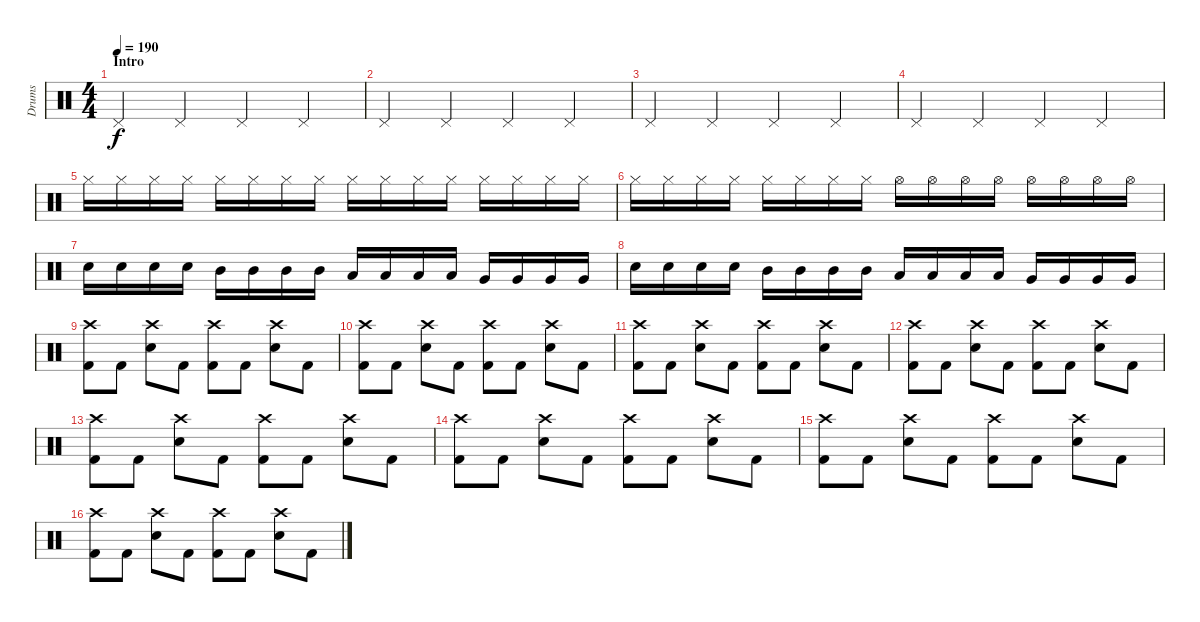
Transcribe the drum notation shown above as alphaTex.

\track ("Drums" "Drums") {instrument percussion}
\staff {score}
\articulation defaults
\ts (4 4)
\section ("" "Intro")
\tempo 190
\clef neutral
\ks c "Pedal Hi-Hat (hit)".4{dy f} "Pedal Hi-Hat (hit)".4 "Pedal Hi-Hat (hit)".4 "Pedal Hi-Hat (hit)".4
|
"Pedal Hi-Hat (hit)".4 "Pedal Hi-Hat (hit)".4 "Pedal Hi-Hat (hit)".4 "Pedal Hi-Hat (hit)".4 |
"Pedal Hi-Hat (hit)".4 "Pedal Hi-Hat (hit)".4 "Pedal Hi-Hat (hit)".4 "Pedal Hi-Hat (hit)".4 |
"Pedal Hi-Hat (hit)".4 "Pedal Hi-Hat (hit)".4 "Pedal Hi-Hat (hit)".4 "Pedal Hi-Hat (hit)".4 |
"Hi-Hat (closed)".16 "Hi-Hat (closed)".16 "Hi-Hat (closed)".16 "Hi-Hat (closed)".16 "Hi-Hat (closed)".16 "Hi-Hat (closed)".16 "Hi-Hat (closed)".16 "Hi-Hat (closed)".16 "Hi-Hat (closed)".16 "Hi-Hat (closed)".16 "Hi-Hat (closed)".16 "Hi-Hat (closed)".16 "Hi-Hat (closed)".16 "Hi-Hat (closed)".16 "Hi-Hat (closed)".16 "Hi-Hat (closed)".16 |
"Hi-Hat (closed)".16 "Hi-Hat (closed)".16 "Hi-Hat (closed)".16 "Hi-Hat (closed)".16 "Hi-Hat (closed)".16 "Hi-Hat (closed)".16 "Hi-Hat (closed)".16 "Hi-Hat (closed)".16 "Hi-Hat (open)".16 "Hi-Hat (open)".16 "Hi-Hat (open)".16 "Hi-Hat (open)".16 "Hi-Hat (open)".16 "Hi-Hat (open)".16 "Hi-Hat (open)".16 "Hi-Hat (open)".16 |
"Electric Snare (hit)".16 "Electric Snare (hit)".16 "Electric Snare (hit)".16 "Electric Snare (hit)".16 "Mid Tom (hit)".16 "Mid Tom (hit)".16 "Mid Tom (hit)".16 "Mid Tom (hit)".16 "Low Tom (hit)".16 "Low Tom (hit)".16 "Low Tom (hit)".16 "Low Tom (hit)".16 "Very Low Tom (hit)".16 "Very Low Tom (hit)".16 "Very Low Tom (hit)".16 "Very Low Tom (hit)".16 |
"Electric Snare (hit)".16 "Electric Snare (hit)".16 "Electric Snare (hit)".16 "Electric Snare (hit)".16 "Mid Tom (hit)".16 "Mid Tom (hit)".16 "Mid Tom (hit)".16 "Mid Tom (hit)".16 "Low Tom (hit)".16 "Low Tom (hit)".16 "Low Tom (hit)".16 "Low Tom (hit)".16 "Very Low Tom (hit)".16 "Very Low Tom (hit)".16 "Very Low Tom (hit)".16 "Very Low Tom (hit)".16 |
("Crash high (hit)" "Kick (hit) 2").8 "Kick (hit) 2".8 ("Crash high (hit)" "Electric Snare (hit)").8 "Kick (hit) 2".8 ("Crash high (hit)" "Kick (hit) 2").8 "Kick (hit) 2".8 ("Crash high (hit)" "Electric Snare (hit)").8 "Kick (hit) 2".8 |
("Crash high (hit)" "Kick (hit) 2").8 "Kick (hit) 2".8 ("Crash high (hit)" "Electric Snare (hit)").8 "Kick (hit) 2".8 ("Crash high (hit)" "Kick (hit) 2").8 "Kick (hit) 2".8 ("Crash high (hit)" "Electric Snare (hit)").8 "Kick (hit) 2".8 |
("Crash high (hit)" "Kick (hit) 2").8 "Kick (hit) 2".8 ("Crash high (hit)" "Electric Snare (hit)").8 "Kick (hit) 2".8 ("Crash high (hit)" "Kick (hit) 2").8 "Kick (hit) 2".8 ("Crash high (hit)" "Electric Snare (hit)").8 "Kick (hit) 2".8 |
("Crash high (hit)" "Kick (hit) 2").8 "Kick (hit) 2".8 ("Crash high (hit)" "Electric Snare (hit)").8 "Kick (hit) 2".8 ("Crash high (hit)" "Kick (hit) 2").8 "Kick (hit) 2".8 ("Crash high (hit)" "Electric Snare (hit)").8 "Kick (hit) 2".8 |
("Crash high (hit)" "Kick (hit) 2").8 "Kick (hit) 2".8 ("Crash high (hit)" "Electric Snare (hit)").8 "Kick (hit) 2".8 ("Crash high (hit)" "Kick (hit) 2").8 "Kick (hit) 2".8 ("Crash high (hit)" "Electric Snare (hit)").8 "Kick (hit) 2".8 |
("Crash high (hit)" "Kick (hit) 2").8 "Kick (hit) 2".8 ("Crash high (hit)" "Electric Snare (hit)").8 "Kick (hit) 2".8 ("Crash high (hit)" "Kick (hit) 2").8 "Kick (hit) 2".8 ("Crash high (hit)" "Electric Snare (hit)").8 "Kick (hit) 2".8 |
("Crash high (hit)" "Kick (hit) 2").8 "Kick (hit) 2".8 ("Crash high (hit)" "Electric Snare (hit)").8 "Kick (hit) 2".8 ("Crash high (hit)" "Kick (hit) 2").8 "Kick (hit) 2".8 ("Crash high (hit)" "Electric Snare (hit)").8 "Kick (hit) 2".8 |
("Crash high (hit)" "Kick (hit) 2").8 "Kick (hit) 2".8 ("Crash high (hit)" "Electric Snare (hit)").8 "Kick (hit) 2".8 ("Crash high (hit)" "Kick (hit) 2").8 "Kick (hit) 2".8 ("Crash high (hit)" "Electric Snare (hit)").8 "Kick (hit) 2".8
